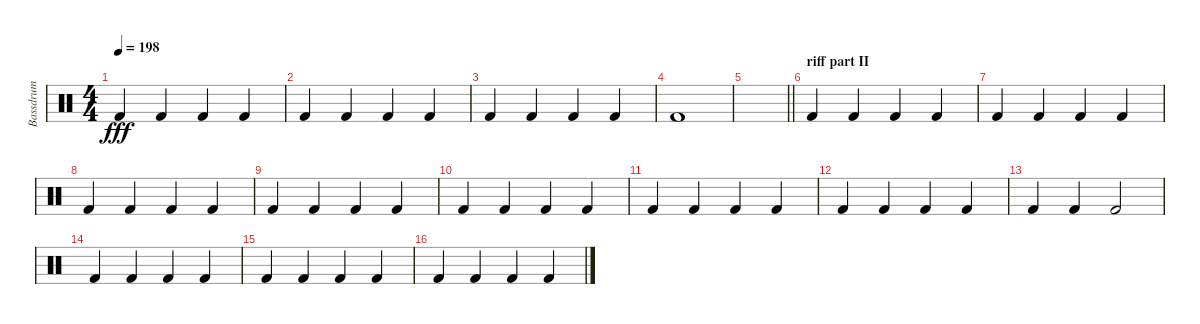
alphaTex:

\track ("Bassdrum" "Bassdrum") {instrument percussion}
\staff {score}
\articulation defaults
\ts (4 4)
\tempo 198
\clef neutral
\ks c "Kick (hit) 2".4{dy fff} "Kick (hit) 2".4 "Kick (hit) 2".4 "Kick (hit) 2".4
|
"Kick (hit) 2".4 "Kick (hit) 2".4 "Kick (hit) 2".4 "Kick (hit) 2".4 |
"Kick (hit) 2".4 "Kick (hit) 2".4 "Kick (hit) 2".4 "Kick (hit) 2".4 |
"Kick (hit) 2".1 |
\barLineRight lightlight
|
\section ("" "riff part II")
"Kick (hit) 2".4 "Kick (hit) 2".4 "Kick (hit) 2".4 "Kick (hit) 2".4 |
"Kick (hit) 2".4 "Kick (hit) 2".4 "Kick (hit) 2".4 "Kick (hit) 2".4 |
"Kick (hit) 2".4 "Kick (hit) 2".4 "Kick (hit) 2".4 "Kick (hit) 2".4 |
"Kick (hit) 2".4 "Kick (hit) 2".4 "Kick (hit) 2".4 "Kick (hit) 2".4 |
"Kick (hit) 2".4 "Kick (hit) 2".4 "Kick (hit) 2".4 "Kick (hit) 2".4 |
"Kick (hit) 2".4 "Kick (hit) 2".4 "Kick (hit) 2".4 "Kick (hit) 2".4 |
"Kick (hit) 2".4 "Kick (hit) 2".4 "Kick (hit) 2".4 "Kick (hit) 2".4 |
"Kick (hit) 2".4 "Kick (hit) 2".4 "Kick (hit) 2".2 |
"Kick (hit) 2".4 "Kick (hit) 2".4 "Kick (hit) 2".4 "Kick (hit) 2".4 |
"Kick (hit) 2".4 "Kick (hit) 2".4 "Kick (hit) 2".4 "Kick (hit) 2".4 |
"Kick (hit) 2".4 "Kick (hit) 2".4 "Kick (hit) 2".4 "Kick (hit) 2".4
